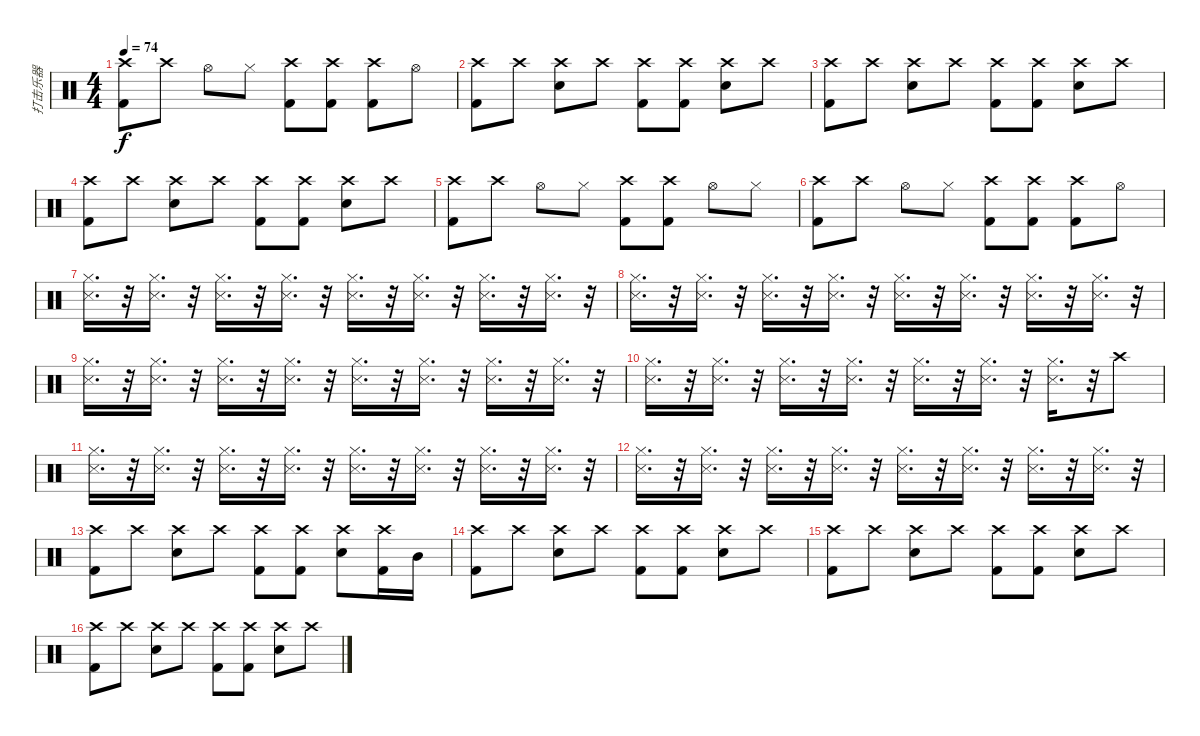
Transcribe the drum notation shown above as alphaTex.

\track ("打击乐器" "打击乐器") {instrument percussion}
\staff {score}
\articulation defaults
\ts (4 4)
\tempo 74
\clef neutral
\ks c
("Crash high (hit)" "Kick (hit) 2").8{dy f} "Crash high (hit)".8 "Hi-Hat (open)".8 "Hi-Hat (closed)".8 ("Crash high (hit)" "Kick (hit) 2").8 ("Crash high (hit)" "Kick (hit) 2").8 ("Crash high (hit)" "Kick (hit) 2").8 "Hi-Hat (open)".8 |
("Crash high (hit)" "Kick (hit) 2").8 "Crash high (hit)".8 ("Crash high (hit)" "Snare (hit) 2").8 "Crash high (hit)".8 ("Crash high (hit)" "Kick (hit) 2").8 ("Crash high (hit)" "Kick (hit) 2").8 ("Crash high (hit)" "Snare (hit) 2").8 "Crash high (hit)".8 |
("Crash high (hit)" "Kick (hit) 2").8 "Crash high (hit)".8 ("Crash high (hit)" "Snare (hit) 2").8 "Crash high (hit)".8 ("Crash high (hit)" "Kick (hit) 2").8 ("Crash high (hit)" "Kick (hit) 2").8 ("Crash high (hit)" "Snare (hit) 2").8 "Crash high (hit)".8 |
("Crash high (hit)" "Kick (hit) 2").8 "Crash high (hit)".8 ("Crash high (hit)" "Snare (hit) 2").8 "Crash high (hit)".8 ("Crash high (hit)" "Kick (hit) 2").8 ("Crash high (hit)" "Kick (hit) 2").8 ("Crash high (hit)" "Snare (hit) 2").8 "Crash high (hit)".8 |
("Crash high (hit)" "Kick (hit) 2").8 "Crash high (hit)".8 "Hi-Hat (open)".8 "Hi-Hat (closed)".8 ("Crash high (hit)" "Kick (hit) 2").8 ("Crash high (hit)" "Kick (hit) 2").8 "Hi-Hat (open)".8 "Hi-Hat (closed)".8 |
("Crash high (hit)" "Kick (hit) 2").8 "Crash high (hit)".8 "Hi-Hat (open)".8 "Hi-Hat (closed)".8 ("Crash high (hit)" "Kick (hit) 2").8 ("Crash high (hit)" "Kick (hit) 2").8 ("Crash high (hit)" "Kick (hit) 2").8 "Hi-Hat (open)".8 |
("Hi-Hat (closed)" "Snare (side stick) 3").16{d} r.32 ("Hi-Hat (closed)" "Snare (side stick) 3").16{d} r.32 ("Hi-Hat (closed)" "Snare (side stick) 3").16{d} r.32 ("Hi-Hat (closed)" "Snare (side stick) 3").16{d} r.32 ("Hi-Hat (closed)" "Snare (side stick) 3").16{d} r.32 ("Hi-Hat (closed)" "Snare (side stick) 3").16{d} r.32 ("Hi-Hat (closed)" "Snare (side stick) 3").16{d} r.32 ("Hi-Hat (closed)" "Snare (side stick) 3").16{d} r.32 |
("Hi-Hat (closed)" "Snare (side stick) 3").16{d} r.32 ("Hi-Hat (closed)" "Snare (side stick) 3").16{d} r.32 ("Hi-Hat (closed)" "Snare (side stick) 3").16{d} r.32 ("Hi-Hat (closed)" "Snare (side stick) 3").16{d} r.32 ("Hi-Hat (closed)" "Snare (side stick) 3").16{d} r.32 ("Hi-Hat (closed)" "Snare (side stick) 3").16{d} r.32 ("Hi-Hat (closed)" "Snare (side stick) 3").16{d} r.32 ("Hi-Hat (closed)" "Snare (side stick) 3").16{d} r.32 |
("Hi-Hat (closed)" "Snare (side stick) 3").16{d} r.32 ("Hi-Hat (closed)" "Snare (side stick) 3").16{d} r.32 ("Hi-Hat (closed)" "Snare (side stick) 3").16{d} r.32 ("Hi-Hat (closed)" "Snare (side stick) 3").16{d} r.32 ("Hi-Hat (closed)" "Snare (side stick) 3").16{d} r.32 ("Hi-Hat (closed)" "Snare (side stick) 3").16{d} r.32 ("Hi-Hat (closed)" "Snare (side stick) 3").16{d} r.32 ("Hi-Hat (closed)" "Snare (side stick) 3").16{d} r.32 |
("Hi-Hat (closed)" "Snare (side stick) 3").16{d} r.32 ("Hi-Hat (closed)" "Snare (side stick) 3").16{d} r.32 ("Hi-Hat (closed)" "Snare (side stick) 3").16{d} r.32 ("Hi-Hat (closed)" "Snare (side stick) 3").16{d} r.32 ("Hi-Hat (closed)" "Snare (side stick) 3").16{d} r.32 ("Hi-Hat (closed)" "Snare (side stick) 3").16{d} r.32 ("Hi-Hat (closed)" "Snare (side stick) 3").16{d} r.32 "Crash high (hit)".8 |
("Hi-Hat (closed)" "Snare (side stick) 3").16{d} r.32 ("Hi-Hat (closed)" "Snare (side stick) 3").16{d} r.32 ("Hi-Hat (closed)" "Snare (side stick) 3").16{d} r.32 ("Hi-Hat (closed)" "Snare (side stick) 3").16{d} r.32 ("Hi-Hat (closed)" "Snare (side stick) 3").16{d} r.32 ("Hi-Hat (closed)" "Snare (side stick) 3").16{d} r.32 ("Hi-Hat (closed)" "Snare (side stick) 3").16{d} r.32 ("Hi-Hat (closed)" "Snare (side stick) 3").16{d} r.32 |
("Hi-Hat (closed)" "Snare (side stick) 3").16{d} r.32 ("Hi-Hat (closed)" "Snare (side stick) 3").16{d} r.32 ("Hi-Hat (closed)" "Snare (side stick) 3").16{d} r.32 ("Hi-Hat (closed)" "Snare (side stick) 3").16{d} r.32 ("Hi-Hat (closed)" "Snare (side stick) 3").16{d} r.32 ("Hi-Hat (closed)" "Snare (side stick) 3").16{d} r.32 ("Hi-Hat (closed)" "Snare (side stick) 3").16{d} r.32 ("Hi-Hat (closed)" "Snare (side stick) 3").16{d} r.32 |
("Crash high (hit)" "Kick (hit) 2").8 "Crash high (hit)".8 ("Crash high (hit)" "Snare (hit) 2").8 "Crash high (hit)".8 ("Crash high (hit)" "Kick (hit) 2").8 ("Crash high (hit)" "Kick (hit) 2").8 ("Crash high (hit)" "Snare (hit) 2").8 ("Crash high (hit)" "Kick (hit) 2").16 "Mid Tom (hit)".16 |
("Crash high (hit)" "Kick (hit) 2").8 "Crash high (hit)".8 ("Crash high (hit)" "Snare (hit) 2").8 "Crash high (hit)".8 ("Crash high (hit)" "Kick (hit) 2").8 ("Crash high (hit)" "Kick (hit) 2").8 ("Crash high (hit)" "Snare (hit) 2").8 "Crash high (hit)".8 |
("Crash high (hit)" "Kick (hit) 2").8 "Crash high (hit)".8 ("Crash high (hit)" "Snare (hit) 2").8 "Crash high (hit)".8 ("Crash high (hit)" "Kick (hit) 2").8 ("Crash high (hit)" "Kick (hit) 2").8 ("Crash high (hit)" "Snare (hit) 2").8 "Crash high (hit)".8 |
("Crash high (hit)" "Kick (hit) 2").8 "Crash high (hit)".8 ("Crash high (hit)" "Snare (hit) 2").8 "Crash high (hit)".8 ("Crash high (hit)" "Kick (hit) 2").8 ("Crash high (hit)" "Kick (hit) 2").8 ("Crash high (hit)" "Snare (hit) 2").8 "Crash high (hit)".8
